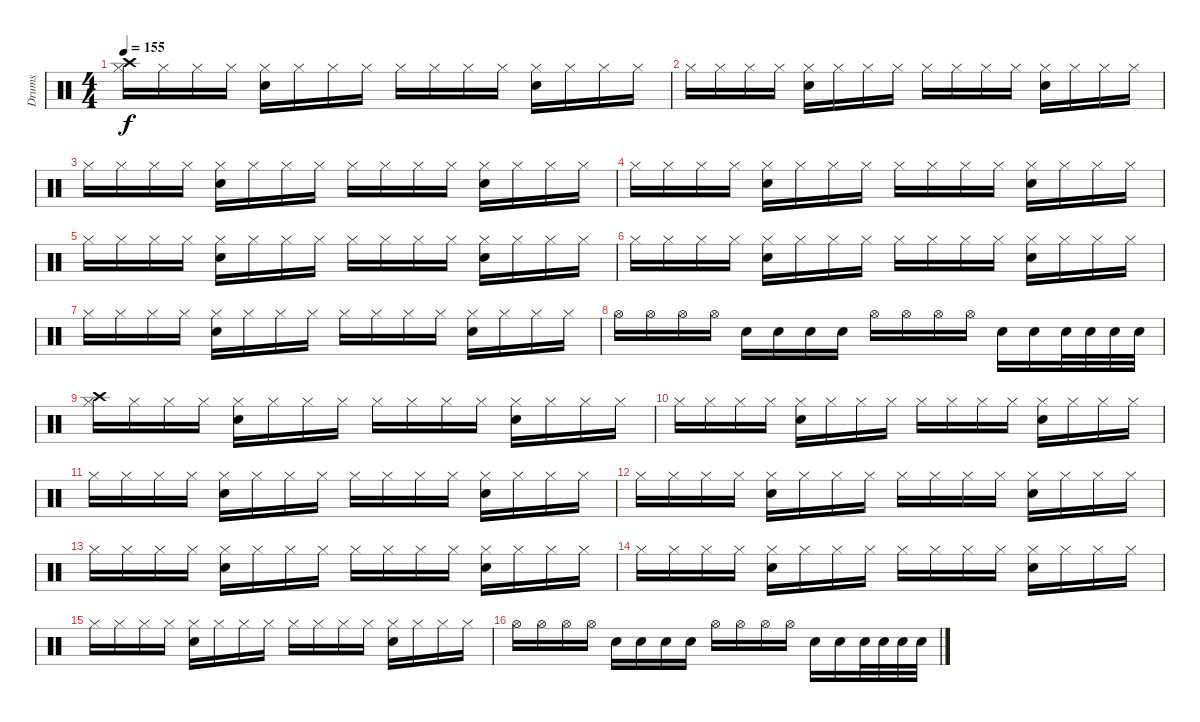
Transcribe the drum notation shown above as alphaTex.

\track ("Drums" "Drums") {instrument percussion}
\staff {score}
\articulation defaults
\ts (4 4)
\tempo 155
\clef neutral
\ks c
("Hi-Hat (closed)" "Crash high (hit)").16{dy f} "Hi-Hat (closed)".16 "Hi-Hat (closed)".16 "Hi-Hat (closed)".16 ("Hi-Hat (closed)" "Electric Snare (hit)").16 "Hi-Hat (closed)".16 "Hi-Hat (closed)".16 "Hi-Hat (closed)".16 "Hi-Hat (closed)".16 "Hi-Hat (closed)".16 "Hi-Hat (closed)".16 "Hi-Hat (closed)".16 ("Hi-Hat (closed)" "Electric Snare (hit)").16 "Hi-Hat (closed)".16 "Hi-Hat (closed)".16 "Hi-Hat (closed)".16 |
"Hi-Hat (closed)".16 "Hi-Hat (closed)".16 "Hi-Hat (closed)".16 "Hi-Hat (closed)".16 ("Hi-Hat (closed)" "Electric Snare (hit)").16 "Hi-Hat (closed)".16 "Hi-Hat (closed)".16 "Hi-Hat (closed)".16 "Hi-Hat (closed)".16 "Hi-Hat (closed)".16 "Hi-Hat (closed)".16 "Hi-Hat (closed)".16 ("Hi-Hat (closed)" "Electric Snare (hit)").16 "Hi-Hat (closed)".16 "Hi-Hat (closed)".16 "Hi-Hat (closed)".16 |
"Hi-Hat (closed)".16 "Hi-Hat (closed)".16 "Hi-Hat (closed)".16 "Hi-Hat (closed)".16 ("Hi-Hat (closed)" "Electric Snare (hit)").16 "Hi-Hat (closed)".16 "Hi-Hat (closed)".16 "Hi-Hat (closed)".16 "Hi-Hat (closed)".16 "Hi-Hat (closed)".16 "Hi-Hat (closed)".16 "Hi-Hat (closed)".16 ("Hi-Hat (closed)" "Electric Snare (hit)").16 "Hi-Hat (closed)".16 "Hi-Hat (closed)".16 "Hi-Hat (closed)".16 |
"Hi-Hat (closed)".16 "Hi-Hat (closed)".16 "Hi-Hat (closed)".16 "Hi-Hat (closed)".16 ("Hi-Hat (closed)" "Electric Snare (hit)").16 "Hi-Hat (closed)".16 "Hi-Hat (closed)".16 "Hi-Hat (closed)".16 "Hi-Hat (closed)".16 "Hi-Hat (closed)".16 "Hi-Hat (closed)".16 "Hi-Hat (closed)".16 ("Hi-Hat (closed)" "Electric Snare (hit)").16 "Hi-Hat (closed)".16 "Hi-Hat (closed)".16 "Hi-Hat (closed)".16 |
"Hi-Hat (closed)".16 "Hi-Hat (closed)".16 "Hi-Hat (closed)".16 "Hi-Hat (closed)".16 ("Hi-Hat (closed)" "Electric Snare (hit)").16 "Hi-Hat (closed)".16 "Hi-Hat (closed)".16 "Hi-Hat (closed)".16 "Hi-Hat (closed)".16 "Hi-Hat (closed)".16 "Hi-Hat (closed)".16 "Hi-Hat (closed)".16 ("Hi-Hat (closed)" "Electric Snare (hit)").16 "Hi-Hat (closed)".16 "Hi-Hat (closed)".16 "Hi-Hat (closed)".16 |
"Hi-Hat (closed)".16 "Hi-Hat (closed)".16 "Hi-Hat (closed)".16 "Hi-Hat (closed)".16 ("Hi-Hat (closed)" "Electric Snare (hit)").16 "Hi-Hat (closed)".16 "Hi-Hat (closed)".16 "Hi-Hat (closed)".16 "Hi-Hat (closed)".16 "Hi-Hat (closed)".16 "Hi-Hat (closed)".16 "Hi-Hat (closed)".16 ("Hi-Hat (closed)" "Electric Snare (hit)").16 "Hi-Hat (closed)".16 "Hi-Hat (closed)".16 "Hi-Hat (closed)".16 |
"Hi-Hat (closed)".16 "Hi-Hat (closed)".16 "Hi-Hat (closed)".16 "Hi-Hat (closed)".16 ("Hi-Hat (closed)" "Electric Snare (hit)").16 "Hi-Hat (closed)".16 "Hi-Hat (closed)".16 "Hi-Hat (closed)".16 "Hi-Hat (closed)".16 "Hi-Hat (closed)".16 "Hi-Hat (closed)".16 "Hi-Hat (closed)".16 ("Hi-Hat (closed)" "Electric Snare (hit)").16 "Hi-Hat (closed)".16 "Hi-Hat (closed)".16 "Hi-Hat (closed)".16 |
"Hi-Hat (open)".16 "Hi-Hat (open)".16 "Hi-Hat (open)".16 "Hi-Hat (open)".16 "Electric Snare (hit)".16 "Electric Snare (hit)".16 "Electric Snare (hit)".16 "Electric Snare (hit)".16 "Hi-Hat (open)".16 "Hi-Hat (open)".16 "Hi-Hat (open)".16 "Hi-Hat (open)".16 "Electric Snare (hit)".16 "Electric Snare (hit)".16 "Electric Snare (hit)".32 "Electric Snare (hit)".32 "Electric Snare (hit)".32 "Electric Snare (hit)".32 |
("Hi-Hat (closed)" "Crash high (hit)").16 "Hi-Hat (closed)".16 "Hi-Hat (closed)".16 "Hi-Hat (closed)".16 ("Hi-Hat (closed)" "Electric Snare (hit)").16 "Hi-Hat (closed)".16 "Hi-Hat (closed)".16 "Hi-Hat (closed)".16 "Hi-Hat (closed)".16 "Hi-Hat (closed)".16 "Hi-Hat (closed)".16 "Hi-Hat (closed)".16 ("Hi-Hat (closed)" "Electric Snare (hit)").16 "Hi-Hat (closed)".16 "Hi-Hat (closed)".16 "Hi-Hat (closed)".16 |
"Hi-Hat (closed)".16 "Hi-Hat (closed)".16 "Hi-Hat (closed)".16 "Hi-Hat (closed)".16 ("Hi-Hat (closed)" "Electric Snare (hit)").16 "Hi-Hat (closed)".16 "Hi-Hat (closed)".16 "Hi-Hat (closed)".16 "Hi-Hat (closed)".16 "Hi-Hat (closed)".16 "Hi-Hat (closed)".16 "Hi-Hat (closed)".16 ("Hi-Hat (closed)" "Electric Snare (hit)").16 "Hi-Hat (closed)".16 "Hi-Hat (closed)".16 "Hi-Hat (closed)".16 |
"Hi-Hat (closed)".16 "Hi-Hat (closed)".16 "Hi-Hat (closed)".16 "Hi-Hat (closed)".16 ("Hi-Hat (closed)" "Electric Snare (hit)").16 "Hi-Hat (closed)".16 "Hi-Hat (closed)".16 "Hi-Hat (closed)".16 "Hi-Hat (closed)".16 "Hi-Hat (closed)".16 "Hi-Hat (closed)".16 "Hi-Hat (closed)".16 ("Hi-Hat (closed)" "Electric Snare (hit)").16 "Hi-Hat (closed)".16 "Hi-Hat (closed)".16 "Hi-Hat (closed)".16 |
"Hi-Hat (closed)".16 "Hi-Hat (closed)".16 "Hi-Hat (closed)".16 "Hi-Hat (closed)".16 ("Hi-Hat (closed)" "Electric Snare (hit)").16 "Hi-Hat (closed)".16 "Hi-Hat (closed)".16 "Hi-Hat (closed)".16 "Hi-Hat (closed)".16 "Hi-Hat (closed)".16 "Hi-Hat (closed)".16 "Hi-Hat (closed)".16 ("Hi-Hat (closed)" "Electric Snare (hit)").16 "Hi-Hat (closed)".16 "Hi-Hat (closed)".16 "Hi-Hat (closed)".16 |
"Hi-Hat (closed)".16 "Hi-Hat (closed)".16 "Hi-Hat (closed)".16 "Hi-Hat (closed)".16 ("Hi-Hat (closed)" "Electric Snare (hit)").16 "Hi-Hat (closed)".16 "Hi-Hat (closed)".16 "Hi-Hat (closed)".16 "Hi-Hat (closed)".16 "Hi-Hat (closed)".16 "Hi-Hat (closed)".16 "Hi-Hat (closed)".16 ("Hi-Hat (closed)" "Electric Snare (hit)").16 "Hi-Hat (closed)".16 "Hi-Hat (closed)".16 "Hi-Hat (closed)".16 |
"Hi-Hat (closed)".16 "Hi-Hat (closed)".16 "Hi-Hat (closed)".16 "Hi-Hat (closed)".16 ("Hi-Hat (closed)" "Electric Snare (hit)").16 "Hi-Hat (closed)".16 "Hi-Hat (closed)".16 "Hi-Hat (closed)".16 "Hi-Hat (closed)".16 "Hi-Hat (closed)".16 "Hi-Hat (closed)".16 "Hi-Hat (closed)".16 ("Hi-Hat (closed)" "Electric Snare (hit)").16 "Hi-Hat (closed)".16 "Hi-Hat (closed)".16 "Hi-Hat (closed)".16 |
"Hi-Hat (closed)".16 "Hi-Hat (closed)".16 "Hi-Hat (closed)".16 "Hi-Hat (closed)".16 ("Hi-Hat (closed)" "Electric Snare (hit)").16 "Hi-Hat (closed)".16 "Hi-Hat (closed)".16 "Hi-Hat (closed)".16 "Hi-Hat (closed)".16 "Hi-Hat (closed)".16 "Hi-Hat (closed)".16 "Hi-Hat (closed)".16 ("Hi-Hat (closed)" "Electric Snare (hit)").16 "Hi-Hat (closed)".16 "Hi-Hat (closed)".16 "Hi-Hat (closed)".16 |
"Hi-Hat (open)".16 "Hi-Hat (open)".16 "Hi-Hat (open)".16 "Hi-Hat (open)".16 "Electric Snare (hit)".16 "Electric Snare (hit)".16 "Electric Snare (hit)".16 "Electric Snare (hit)".16 "Hi-Hat (open)".16 "Hi-Hat (open)".16 "Hi-Hat (open)".16 "Hi-Hat (open)".16 "Electric Snare (hit)".16 "Electric Snare (hit)".16 "Electric Snare (hit)".32 "Electric Snare (hit)".32 "Electric Snare (hit)".32 "Electric Snare (hit)".32
